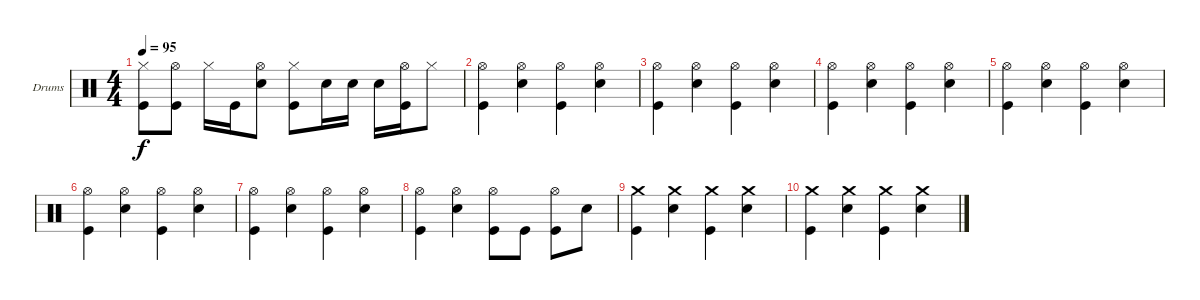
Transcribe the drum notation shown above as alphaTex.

\bracketExtendMode groupsimilarinstruments
\firstSystemTrackNameOrientation horizontal
\otherSystemsTrackNameOrientation horizontal
\track ("Drumkit" "Drums") {instrument percussion}
\staff {score}
\articulation defaults
\ts (4 4)
\tempo 95
\clef neutral
\ks c
("Hi-Hat (closed)" "Kick (hit)").8{dy f} ("Hi-Hat (open)" "Kick (hit)").8 "Hi-Hat (closed)".16 "Kick (hit)".16 ("Hi-Hat (open)" "Snare (hit) 2").8 ("Hi-Hat (closed)" "Kick (hit)").8 "Snare (hit) 2".16 "Snare (hit) 2".16 "Snare (hit) 2".16 ("Hi-Hat (open)" "Kick (hit)").16 "Hi-Hat (closed)".8 |
("Hi-Hat (open)" "Kick (hit)").4 ("Hi-Hat (open)" "Snare (hit) 2").4 ("Hi-Hat (open)" "Kick (hit)").4 ("Hi-Hat (open)" "Snare (hit) 2").4 |
("Hi-Hat (open)" "Kick (hit)").4 ("Hi-Hat (open)" "Snare (hit) 2").4 ("Hi-Hat (open)" "Kick (hit)").4 ("Hi-Hat (open)" "Snare (hit) 2").4 |
("Hi-Hat (open)" "Kick (hit)").4 ("Hi-Hat (open)" "Snare (hit) 2").4 ("Hi-Hat (open)" "Kick (hit)").4 ("Hi-Hat (open)" "Snare (hit) 2").4 |
("Hi-Hat (open)" "Kick (hit)").4 ("Hi-Hat (open)" "Snare (hit) 2").4 ("Hi-Hat (open)" "Kick (hit)").4 ("Hi-Hat (open)" "Snare (hit) 2").4 |
("Hi-Hat (open)" "Kick (hit)").4 ("Hi-Hat (open)" "Snare (hit) 2").4 ("Hi-Hat (open)" "Kick (hit)").4 ("Hi-Hat (open)" "Snare (hit) 2").4 |
("Hi-Hat (open)" "Kick (hit)").4 ("Hi-Hat (open)" "Snare (hit) 2").4 ("Hi-Hat (open)" "Kick (hit)").4 ("Hi-Hat (open)" "Snare (hit) 2").4 |
("Hi-Hat (open)" "Kick (hit)").4 ("Hi-Hat (open)" "Snare (hit) 2").4 ("Hi-Hat (open)" "Kick (hit)").8 "Kick (hit)".8 ("Hi-Hat (open)" "Kick (hit)").8 "Snare (hit) 2".8 |
("Crash medium (hit)" "Kick (hit)").4 ("Crash medium (hit)" "Snare (hit) 2").4 ("Crash medium (hit)" "Kick (hit)").4 ("Crash medium (hit)" "Snare (hit) 2").4 |
("Crash medium (hit)" "Kick (hit)").4 ("Crash medium (hit)" "Snare (hit) 2").4 ("Crash medium (hit)" "Kick (hit)").4 ("Crash medium (hit)" "Snare (hit) 2").4
